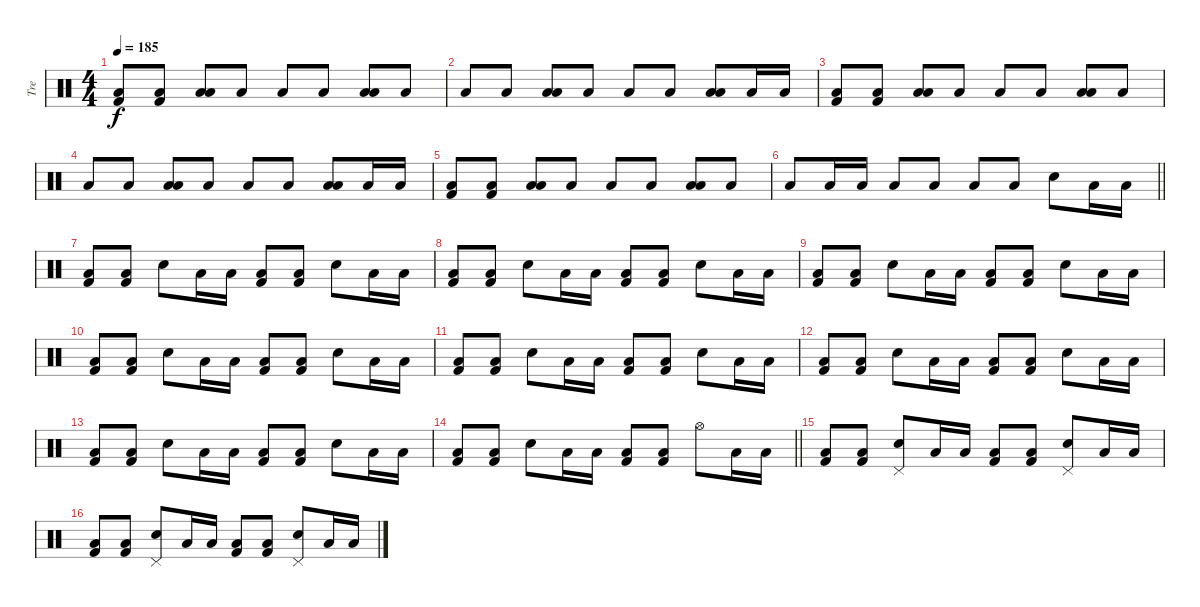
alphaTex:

\track ("Tre" "Tre") {instrument percussion}
\staff {score}
\articulation defaults
\ts (4 4)
\tempo 185
\clef neutral
\ks c
("Low Floor Tom (hit)" "Kick (hit) 2").8{dy f} ("Low Floor Tom (hit)" "Kick (hit) 2").8 ("Low Floor Tom (hit)" "Low Floor Tom (hit)").8 "Low Floor Tom (hit)".8 "Low Floor Tom (hit)".8 "Low Floor Tom (hit)".8 ("Low Floor Tom (hit)" "Low Floor Tom (hit)").8 "Low Floor Tom (hit)".8 |
"Low Floor Tom (hit)".8 "Low Floor Tom (hit)".8 ("Low Floor Tom (hit)" "Low Floor Tom (hit)").8 "Low Floor Tom (hit)".8 "Low Floor Tom (hit)".8 "Low Floor Tom (hit)".8 ("Low Floor Tom (hit)" "Low Floor Tom (hit)").8 "Low Floor Tom (hit)".16 "Low Floor Tom (hit)".16 |
("Low Floor Tom (hit)" "Kick (hit) 2").8 ("Low Floor Tom (hit)" "Kick (hit) 2").8 ("Low Floor Tom (hit)" "Low Floor Tom (hit)").8 "Low Floor Tom (hit)".8 "Low Floor Tom (hit)".8 "Low Floor Tom (hit)".8 ("Low Floor Tom (hit)" "Low Floor Tom (hit)").8 "Low Floor Tom (hit)".8 |
"Low Floor Tom (hit)".8 "Low Floor Tom (hit)".8 ("Low Floor Tom (hit)" "Low Floor Tom (hit)").8 "Low Floor Tom (hit)".8 "Low Floor Tom (hit)".8 "Low Floor Tom (hit)".8 ("Low Floor Tom (hit)" "Low Floor Tom (hit)").8 "Low Floor Tom (hit)".16 "Low Floor Tom (hit)".16 |
("Low Floor Tom (hit)" "Kick (hit) 2").8 ("Low Floor Tom (hit)" "Kick (hit) 2").8 ("Low Floor Tom (hit)" "Low Floor Tom (hit)").8 "Low Floor Tom (hit)".8 "Low Floor Tom (hit)".8 "Low Floor Tom (hit)".8 ("Low Floor Tom (hit)" "Low Floor Tom (hit)").8 "Low Floor Tom (hit)".8 |
\barLineRight lightlight "Low Tom (hit)".8 "Low Floor Tom (hit)".16 "Low Floor Tom (hit)".16 "Low Floor Tom (hit)".8 "Low Tom (hit)".8 "Low Floor Tom (hit)".8 "Low Floor Tom (hit)".8 "Snare (hit) 2".8 "Low Floor Tom (hit)".16 "Low Floor Tom (hit)".16
|
("Low Floor Tom (hit)" "Kick (hit) 2").8 ("Low Floor Tom (hit)" "Kick (hit) 2").8 "Snare (hit) 2".8 "Low Floor Tom (hit)".16 "Low Floor Tom (hit)".16 ("Low Floor Tom (hit)" "Kick (hit) 2").8 ("Low Floor Tom (hit)" "Kick (hit) 2").8 "Snare (hit) 2".8 "Low Floor Tom (hit)".16 "Low Floor Tom (hit)".16 |
("Low Floor Tom (hit)" "Kick (hit) 2").8 ("Low Floor Tom (hit)" "Kick (hit) 2").8 "Snare (hit) 2".8 "Low Floor Tom (hit)".16 "Low Floor Tom (hit)".16 ("Low Floor Tom (hit)" "Kick (hit) 2").8 ("Low Floor Tom (hit)" "Kick (hit) 2").8 "Snare (hit) 2".8 "Low Floor Tom (hit)".16 "Low Floor Tom (hit)".16 |
("Low Floor Tom (hit)" "Kick (hit) 2").8 ("Low Floor Tom (hit)" "Kick (hit) 2").8 "Snare (hit) 2".8 "Low Floor Tom (hit)".16 "Low Floor Tom (hit)".16 ("Low Floor Tom (hit)" "Kick (hit) 2").8 ("Low Floor Tom (hit)" "Kick (hit) 2").8 "Snare (hit) 2".8 "Low Floor Tom (hit)".16 "Low Floor Tom (hit)".16 |
("Low Floor Tom (hit)" "Kick (hit) 2").8 ("Low Floor Tom (hit)" "Kick (hit) 2").8 "Snare (hit) 2".8 "Low Floor Tom (hit)".16 "Low Floor Tom (hit)".16 ("Low Floor Tom (hit)" "Kick (hit) 2").8 ("Low Floor Tom (hit)" "Kick (hit) 2").8 "Snare (hit) 2".8 "Low Floor Tom (hit)".16 "Low Floor Tom (hit)".16 |
("Low Floor Tom (hit)" "Kick (hit) 2").8 ("Low Floor Tom (hit)" "Kick (hit) 2").8 "Snare (hit) 2".8 "Low Floor Tom (hit)".16 "Low Floor Tom (hit)".16 ("Low Floor Tom (hit)" "Kick (hit) 2").8 ("Low Floor Tom (hit)" "Kick (hit) 2").8 "Snare (hit) 2".8 "Low Floor Tom (hit)".16 "Low Floor Tom (hit)".16 |
("Low Floor Tom (hit)" "Kick (hit) 2").8 ("Low Floor Tom (hit)" "Kick (hit) 2").8 "Snare (hit) 2".8 "Low Floor Tom (hit)".16 "Low Floor Tom (hit)".16 ("Low Floor Tom (hit)" "Kick (hit) 2").8 ("Low Floor Tom (hit)" "Kick (hit) 2").8 "Snare (hit) 2".8 "Low Floor Tom (hit)".16 "Low Floor Tom (hit)".16 |
("Low Floor Tom (hit)" "Kick (hit) 2").8 ("Low Floor Tom (hit)" "Kick (hit) 2").8 "Snare (hit) 2".8 "Low Floor Tom (hit)".16 "Low Floor Tom (hit)".16 ("Low Floor Tom (hit)" "Kick (hit) 2").8 ("Low Floor Tom (hit)" "Kick (hit) 2").8 "Snare (hit) 2".8 "Low Floor Tom (hit)".16 "Low Floor Tom (hit)".16 |
\barLineRight lightlight
("Low Floor Tom (hit)" "Kick (hit) 2").8 ("Low Floor Tom (hit)" "Kick (hit) 2").8 "Snare (hit) 2".8 "Low Floor Tom (hit)".16 "Low Floor Tom (hit)".16 ("Low Floor Tom (hit)" "Kick (hit) 2").8 ("Low Floor Tom (hit)" "Kick (hit) 2").8 "Hi-Hat (open)".8 "Low Floor Tom (hit)".16 "Low Floor Tom (hit)".16 |
("Low Floor Tom (hit)" "Kick (hit) 2").8 ("Low Floor Tom (hit)" "Kick (hit) 2").8 ("Snare (hit) 2" "Pedal Hi-Hat (hit)").8 "Low Floor Tom (hit)".16 "Low Floor Tom (hit)".16 ("Low Floor Tom (hit)" "Kick (hit) 2").8 ("Low Floor Tom (hit)" "Kick (hit) 2").8 ("Snare (hit) 2" "Pedal Hi-Hat (hit)").8 "Low Floor Tom (hit)".16 "Low Floor Tom (hit)".16 |
("Low Floor Tom (hit)" "Kick (hit) 2").8 ("Low Floor Tom (hit)" "Kick (hit) 2").8 ("Snare (hit) 2" "Pedal Hi-Hat (hit)").8 "Low Floor Tom (hit)".16 "Low Floor Tom (hit)".16 ("Low Floor Tom (hit)" "Kick (hit) 2").8 ("Low Floor Tom (hit)" "Kick (hit) 2").8 ("Snare (hit) 2" "Pedal Hi-Hat (hit)").8 "Low Floor Tom (hit)".16 "Low Floor Tom (hit)".16
